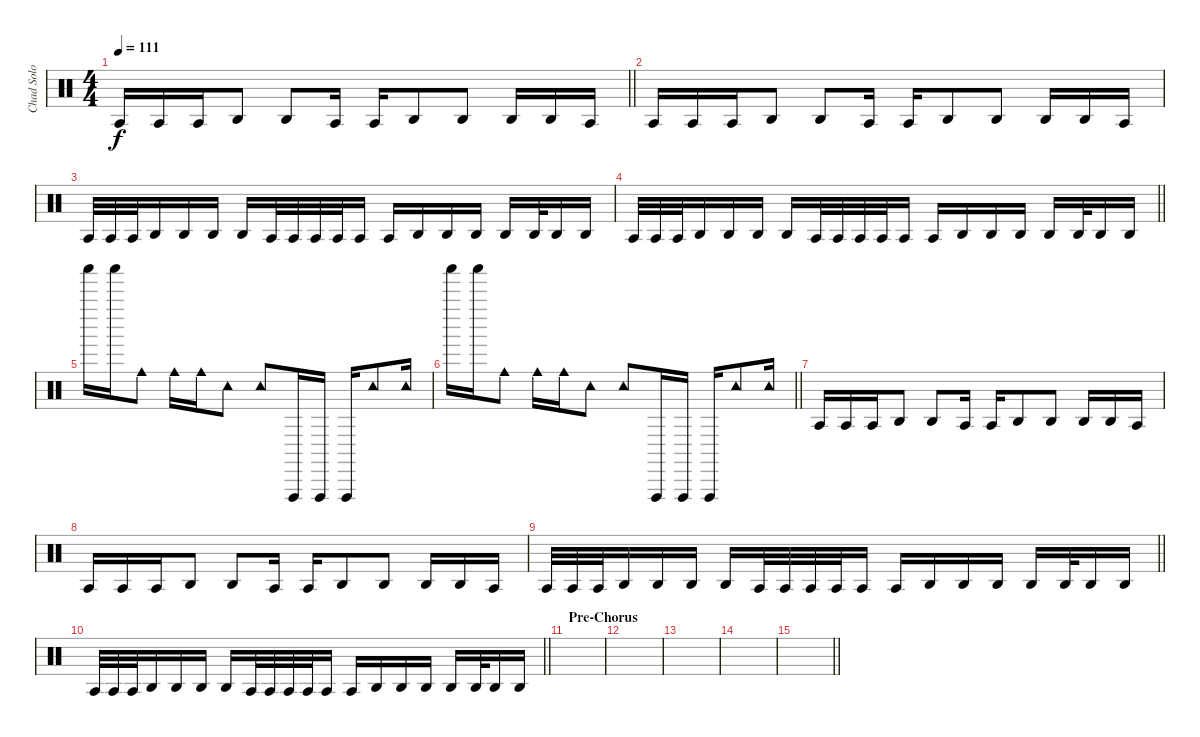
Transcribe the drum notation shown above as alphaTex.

\track ("Chad Solo" "Chad Solo") {instrument percussion}
\staff {score}
\articulation defaults
\ts (4 4)
\tempo 111
\clef neutral
\barLineRight lightlight
\ks c "Agogo tow (hit)".16{dy f} "Agogo tow (hit)".16 "Agogo tow (hit)".16 "Agogo high (hit)".8 "Agogo high (hit)".8 "Agogo tow (hit)".16 "Agogo tow (hit)".16 "Agogo high (hit)".8 "Agogo high (hit)".8 "Agogo high (hit)".16 "Agogo high (hit)".16 "Agogo tow (hit)".16
|
"Agogo tow (hit)".16 "Agogo tow (hit)".16 "Agogo tow (hit)".16 "Agogo high (hit)".8 "Agogo high (hit)".8 "Agogo tow (hit)".16 "Agogo tow (hit)".16 "Agogo high (hit)".8 "Agogo high (hit)".8 "Agogo high (hit)".16 "Agogo high (hit)".16 "Agogo tow (hit)".16 |
"Agogo tow (hit)".32 "Agogo tow (hit)".32 "Agogo tow (hit)".32 "Agogo high (hit)".16 "Agogo high (hit)".16 "Agogo high (hit)".16 "Agogo high (hit)".16 "Agogo tow (hit)".32 "Agogo tow (hit)".32 "Agogo tow (hit)".32 "Agogo tow (hit)".32 "Agogo tow (hit)".16 "Agogo tow (hit)".16 "Agogo high (hit)".16 "Agogo high (hit)".16 "Agogo high (hit)".16 "Agogo high (hit)".16 "Agogo high (hit)".32 "Agogo high (hit)".16 "Agogo high (hit)".16 |
\barLineRight lightlight "Agogo tow (hit)".32 "Agogo tow (hit)".32 "Agogo tow (hit)".32 "Agogo high (hit)".16 "Agogo high (hit)".16 "Agogo high (hit)".16 "Agogo high (hit)".16 "Agogo tow (hit)".32 "Agogo tow (hit)".32 "Agogo tow (hit)".32 "Agogo tow (hit)".32 "Agogo tow (hit)".16 "Agogo tow (hit)".16 "Agogo high (hit)".16 "Agogo high (hit)".16 "Agogo high (hit)".16 "Agogo high (hit)".16 "Agogo high (hit)".32 "Agogo high (hit)".16 "Agogo high (hit)".16
|
"Shaker (hit)".16 "Shaker (hit)".16 "Cowbell medium (hit)".8 "Cowbell medium (hit)".16 "Cowbell medium (hit)".16 "Tambourine (hit)".8 "Tambourine (hit)".8 "Vibraslap (hit)".16 "Vibraslap (hit)".16 "Vibraslap (hit)".16 "Tambourine (hit)".8 "Tambourine (hit)".16 |
\barLineRight lightlight "Shaker (hit)".16 "Shaker (hit)".16 "Cowbell medium (hit)".8 "Cowbell medium (hit)".16 "Cowbell medium (hit)".16 "Tambourine (hit)".8 "Tambourine (hit)".8 "Vibraslap (hit)".16 "Vibraslap (hit)".16 "Vibraslap (hit)".16 "Tambourine (hit)".8 "Tambourine (hit)".16
|
"Agogo tow (hit)".16 "Agogo tow (hit)".16 "Agogo tow (hit)".16 "Agogo high (hit)".8 "Agogo high (hit)".8 "Agogo tow (hit)".16 "Agogo tow (hit)".16 "Agogo high (hit)".8 "Agogo high (hit)".8 "Agogo high (hit)".16 "Agogo high (hit)".16 "Agogo tow (hit)".16 |
"Agogo tow (hit)".16 "Agogo tow (hit)".16 "Agogo tow (hit)".16 "Agogo high (hit)".8 "Agogo high (hit)".8 "Agogo tow (hit)".16 "Agogo tow (hit)".16 "Agogo high (hit)".8 "Agogo high (hit)".8 "Agogo high (hit)".16 "Agogo high (hit)".16 "Agogo tow (hit)".16 |
\barLineRight lightlight "Agogo tow (hit)".32 "Agogo tow (hit)".32 "Agogo tow (hit)".32 "Agogo high (hit)".16 "Agogo high (hit)".16 "Agogo high (hit)".16 "Agogo high (hit)".16 "Agogo tow (hit)".32 "Agogo tow (hit)".32 "Agogo tow (hit)".32 "Agogo tow (hit)".32 "Agogo tow (hit)".16 "Agogo tow (hit)".16 "Agogo high (hit)".16 "Agogo high (hit)".16 "Agogo high (hit)".16 "Agogo high (hit)".16 "Agogo high (hit)".32 "Agogo high (hit)".16 "Agogo high (hit)".16
|
\barLineRight lightlight "Agogo tow (hit)".32 "Agogo tow (hit)".32 "Agogo tow (hit)".32 "Agogo high (hit)".16 "Agogo high (hit)".16 "Agogo high (hit)".16 "Agogo high (hit)".16 "Agogo tow (hit)".32 "Agogo tow (hit)".32 "Agogo tow (hit)".32 "Agogo tow (hit)".32 "Agogo tow (hit)".16 "Agogo tow (hit)".16 "Agogo high (hit)".16 "Agogo high (hit)".16 "Agogo high (hit)".16 "Agogo high (hit)".16 "Agogo high (hit)".32 "Agogo high (hit)".16 "Agogo high (hit)".16
|
\section ("" "Pre-Chorus")
|
|
|
|
\barLineRight lightlight
